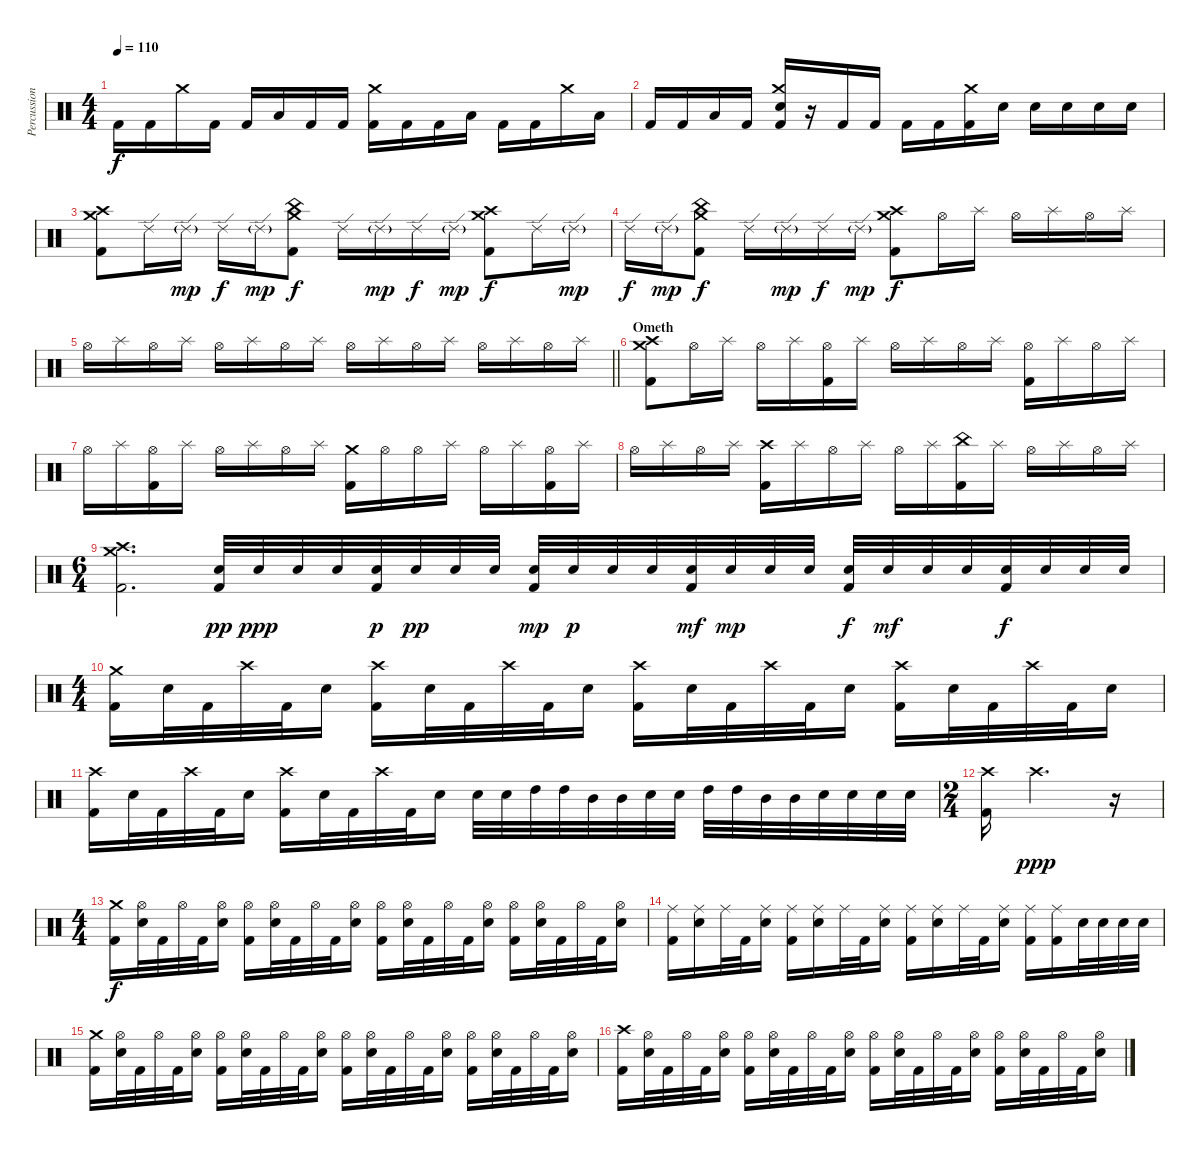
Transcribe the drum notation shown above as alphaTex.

\track ("Percussion" "Percussion") {instrument percussion}
\staff {score}
\articulation defaults
\ts (4 4)
\tempo 110
\clef neutral
\ks c "Kick (hit) 2".16{dy f} "Kick (hit) 2".16 "Crash medium (hit)".16 "Kick (hit) 2".16 "Kick (hit) 2".16 "Low Floor Tom (hit)".16 "Kick (hit) 2".16 "Kick (hit) 2".16
("Crash medium (hit)" "Kick (hit) 2").16 "Kick (hit) 2".16 "Kick (hit) 2".16 "Low Floor Tom (hit)".16 "Kick (hit) 2".16 "Kick (hit) 2".16 "Crash medium (hit)".16 "Low Floor Tom (hit)".16 |
"Kick (hit) 2".16 "Kick (hit) 2".16 "Low Floor Tom (hit)".16 "Kick (hit) 2".16 ("Crash medium (hit)" "Electric Snare (hit)" "Kick (hit) 2").16 r.16 "Kick (hit) 2".16 "Kick (hit) 2".16 "Kick (hit) 2".16 "Kick (hit) 2".16 ("Crash medium (hit)" "Kick (hit) 2").16 "Electric Snare (hit)".16 "Electric Snare (hit)".16 "Electric Snare (hit)".16 "Electric Snare (hit)".16 "Electric Snare (hit)".16 |
("Crash medium (hit)" "Crash high (hit)" "Kick (hit) 2").8 "Ride (edge) 2".16 "Ride (edge) 2"{g}.16{dy mp} "Ride (edge) 2".16{dy f} "Ride (edge) 2"{g}.16{dy mp} ("Crash medium (hit)" "China (hit)" "Kick (hit) 2").8{dy f} "Ride (edge) 2".16 "Ride (edge) 2"{g}.16{dy mp} "Ride (edge) 2".16{dy f} "Ride (edge) 2"{g}.16{dy mp} ("Crash medium (hit)" "Crash high (hit)" "Kick (hit) 2").8{dy f} "Ride (edge) 2".16 "Ride (edge) 2"{g}.16{dy mp} |
"Ride (edge) 2".16{dy f} "Ride (edge) 2"{g}.16{dy mp} ("Crash medium (hit)" "China (hit)" "Kick (hit) 2").8{dy f} "Ride (edge) 2".16 "Ride (edge) 2"{g}.16{dy mp} "Ride (edge) 2".16{dy f} "Ride (edge) 2"{g}.16{dy mp} ("Crash medium (hit)" "Crash high (hit)" "Kick (hit) 2").8{dy f} "Hi-Hat (open)".16 "Splash (hit)".16 "Hi-Hat (open)".16 "Splash (hit)".16 "Hi-Hat (open)".16 "Splash (hit)".16 |
\barLineRight lightlight "Hi-Hat (open)".16 "Splash (hit)".16 "Hi-Hat (open)".16 "Splash (hit)".16 "Hi-Hat (open)".16 "Splash (hit)".16 "Hi-Hat (open)".16 "Splash (hit)".16 "Hi-Hat (open)".16 "Splash (hit)".16 "Hi-Hat (open)".16 "Splash (hit)".16 "Hi-Hat (open)".16 "Splash (hit)".16 "Hi-Hat (open)".16 "Splash (hit)".16
|
\section ("" "Ometh")
("Crash medium (hit)" "Crash high (hit)" "Kick (hit) 2").8 "Hi-Hat (open)".16 "Splash (hit)".16 "Hi-Hat (open)".16 "Splash (hit)".16 ("Hi-Hat (open)" "Kick (hit) 2").16 "Splash (hit)".16 "Hi-Hat (open)".16 "Splash (hit)".16 "Hi-Hat (open)".16 "Splash (hit)".16 ("Hi-Hat (open)" "Kick (hit) 2").16 "Splash (hit)".16 "Hi-Hat (open)".16 "Splash (hit)".16 |
"Hi-Hat (open)".16 "Splash (hit)".16 ("Hi-Hat (open)" "Kick (hit) 2").16 "Splash (hit)".16 "Hi-Hat (open)".16 "Splash (hit)".16 "Hi-Hat (open)".16 "Splash (hit)".16 ("Crash medium (hit)" "Kick (hit) 2").16 "Hi-Hat (open)".16 "Hi-Hat (open)".16 "Splash (hit)".16 "Hi-Hat (open)".16 "Splash (hit)".16 ("Hi-Hat (open)" "Kick (hit) 2").16 "Splash (hit)".16 |
"Hi-Hat (open)".16 "Splash (hit)".16 "Hi-Hat (open)".16 "Splash (hit)".16 ("Crash high (hit)" "Kick (hit) 2").16 "Splash (hit)".16 "Hi-Hat (open)".16 "Splash (hit)".16 "Hi-Hat (open)".16 "Splash (hit)".16 ("China (hit)" "Kick (hit) 2").16 "Splash (hit)".16 "Hi-Hat (open)".16 "Splash (hit)".16 "Hi-Hat (open)".16 "Splash (hit)".16 |
\ts (6 4)
("Crash medium (hit)" "Crash high (hit)" "Kick (hit) 2").2{d} ("Electric Snare (hit)" "Kick (hit) 2").32{dy pp} "Electric Snare (hit)".32{dy ppp} "Electric Snare (hit)".32 "Electric Snare (hit)".32 ("Electric Snare (hit)" "Kick (hit) 2").32{dy p} "Electric Snare (hit)".32{dy pp} "Electric Snare (hit)".32 "Electric Snare (hit)".32 ("Electric Snare (hit)" "Kick (hit) 2").32{dy mp} "Electric Snare (hit)".32{dy p} "Electric Snare (hit)".32 "Electric Snare (hit)".32 ("Electric Snare (hit)" "Kick (hit) 2").32{dy mf} "Electric Snare (hit)".32{dy mp} "Electric Snare (hit)".32 "Electric Snare (hit)".32 ("Electric Snare (hit)" "Kick (hit) 2").32{dy f} "Electric Snare (hit)".32{dy mf} "Electric Snare (hit)".32 "Electric Snare (hit)".32 ("Electric Snare (hit)" "Kick (hit) 2").32{dy f} "Electric Snare (hit)".32 "Electric Snare (hit)".32 "Electric Snare (hit)".32 |
\ts (4 4)
("Crash medium (hit)" "Kick (hit) 2").16 "Electric Snare (hit)".32 "Kick (hit) 2".32 "Crash high (hit)".32 "Kick (hit) 2".32 "Electric Snare (hit)".16 ("Crash high (hit)" "Kick (hit) 2").16 "Electric Snare (hit)".32 "Kick (hit) 2".32 "Crash high (hit)".32 "Kick (hit) 2".32 "Electric Snare (hit)".16 ("Crash high (hit)" "Kick (hit) 2").16 "Electric Snare (hit)".32 "Kick (hit) 2".32 "Crash high (hit)".32 "Kick (hit) 2".32 "Electric Snare (hit)".16 ("Crash high (hit)" "Kick (hit) 2").16 "Electric Snare (hit)".32 "Kick (hit) 2".32 "Crash high (hit)".32 "Kick (hit) 2".32 "Electric Snare (hit)".16 |
("Crash high (hit)" "Kick (hit) 2").16 "Electric Snare (hit)".32 "Kick (hit) 2".32 "Crash high (hit)".32 "Kick (hit) 2".32 "Electric Snare (hit)".16 ("Crash high (hit)" "Kick (hit) 2").16 "Electric Snare (hit)".32 "Kick (hit) 2".32 "Crash high (hit)".32 "Kick (hit) 2".32 "Electric Snare (hit)".16 "Electric Snare (hit)".32 "Electric Snare (hit)".32 "High Tom (hit)".32 "High Tom (hit)".32 "Mid Tom (hit)".32 "Mid Tom (hit)".32 "Electric Snare (hit)".32 "Electric Snare (hit)".32 "High Tom (hit)".32 "High Tom (hit)".32 "Mid Tom (hit)".32 "Mid Tom (hit)".32 "Electric Snare (hit)".32 "Electric Snare (hit)".32 "Electric Snare (hit)".32 "Electric Snare (hit)".32 |
\ts (2 4)
("Crash high (hit)" "Kick (hit) 2").16 "Crash high (hit)".4{d dy ppp} r.16 |
\ts (4 4)
("Crash medium (hit)" "Kick (hit) 2").16{dy f} ("Hi-Hat (open)" "Electric Snare (hit)").32 "Kick (hit) 2".32 "Hi-Hat (open)".32 "Kick (hit) 2".32 ("Hi-Hat (open)" "Electric Snare (hit)").16 ("Hi-Hat (open)" "Kick (hit) 2").16 ("Hi-Hat (open)" "Electric Snare (hit)").32 "Kick (hit) 2".32 "Hi-Hat (open)".32 "Kick (hit) 2".32 ("Hi-Hat (open)" "Electric Snare (hit)").16 ("Hi-Hat (open)" "Kick (hit) 2").16 ("Hi-Hat (open)" "Electric Snare (hit)").32 "Kick (hit) 2".32 "Hi-Hat (open)".32 "Kick (hit) 2".32 ("Hi-Hat (open)" "Electric Snare (hit)").16 ("Hi-Hat (open)" "Kick (hit) 2").16 ("Hi-Hat (open)" "Electric Snare (hit)").32 "Kick (hit) 2".32 "Hi-Hat (open)".32 "Kick (hit) 2".32 ("Hi-Hat (open)" "Electric Snare (hit)").16 |
("Ride (middle)" "Kick (hit) 2").16 ("Ride (middle)" "Electric Snare (hit)").16 "Ride (middle)".32 "Kick (hit) 2".32 ("Ride (middle)" "Electric Snare (hit)").16 ("Ride (middle)" "Kick (hit) 2").16 ("Ride (middle)" "Electric Snare (hit)").16 "Ride (middle)".32 "Kick (hit) 2".32 ("Ride (middle)" "Electric Snare (hit)").16 ("Ride (middle)" "Kick (hit) 2").16 ("Ride (middle)" "Electric Snare (hit)").16 "Ride (middle)".32 "Kick (hit) 2".32 ("Ride (middle)" "Electric Snare (hit)").16 ("Ride (middle)" "Kick (hit) 2").16 ("Ride (middle)" "Kick (hit) 2").16 "Electric Snare (hit)".32 "Electric Snare (hit)".32 "Electric Snare (hit)".32 "Electric Snare (hit)".32 |
("Crash medium (hit)" "Kick (hit) 2").16 ("Hi-Hat (open)" "Electric Snare (hit)").32 "Kick (hit) 2".32 "Hi-Hat (open)".32 "Kick (hit) 2".32 ("Hi-Hat (open)" "Electric Snare (hit)").16 ("Hi-Hat (open)" "Kick (hit) 2").16 ("Hi-Hat (open)" "Electric Snare (hit)").32 "Kick (hit) 2".32 "Hi-Hat (open)".32 "Kick (hit) 2".32 ("Hi-Hat (open)" "Electric Snare (hit)").16 ("Hi-Hat (open)" "Kick (hit) 2").16 ("Hi-Hat (open)" "Electric Snare (hit)").32 "Kick (hit) 2".32 "Hi-Hat (open)".32 "Kick (hit) 2".32 ("Hi-Hat (open)" "Electric Snare (hit)").16 ("Hi-Hat (open)" "Kick (hit) 2").16 ("Hi-Hat (open)" "Electric Snare (hit)").32 "Kick (hit) 2".32 "Hi-Hat (open)".32 "Kick (hit) 2".32 ("Hi-Hat (open)" "Electric Snare (hit)").16 |
("Crash high (hit)" "Kick (hit) 2").16 ("Hi-Hat (open)" "Electric Snare (hit)").32 "Kick (hit) 2".32 "Hi-Hat (open)".32 "Kick (hit) 2".32 ("Hi-Hat (open)" "Electric Snare (hit)").16 ("Hi-Hat (open)" "Kick (hit) 2").16 ("Hi-Hat (open)" "Electric Snare (hit)").32 "Kick (hit) 2".32 "Hi-Hat (open)".32 "Kick (hit) 2".32 ("Hi-Hat (open)" "Electric Snare (hit)").16 ("Hi-Hat (open)" "Kick (hit) 2").16 ("Hi-Hat (open)" "Electric Snare (hit)").32 "Kick (hit) 2".32 "Hi-Hat (open)".32 "Kick (hit) 2".32 ("Hi-Hat (open)" "Electric Snare (hit)").16 ("Hi-Hat (open)" "Kick (hit) 2").16 ("Hi-Hat (open)" "Electric Snare (hit)").32 "Kick (hit) 2".32 "Hi-Hat (open)".32 "Kick (hit) 2".32 ("Hi-Hat (open)" "Electric Snare (hit)").16
